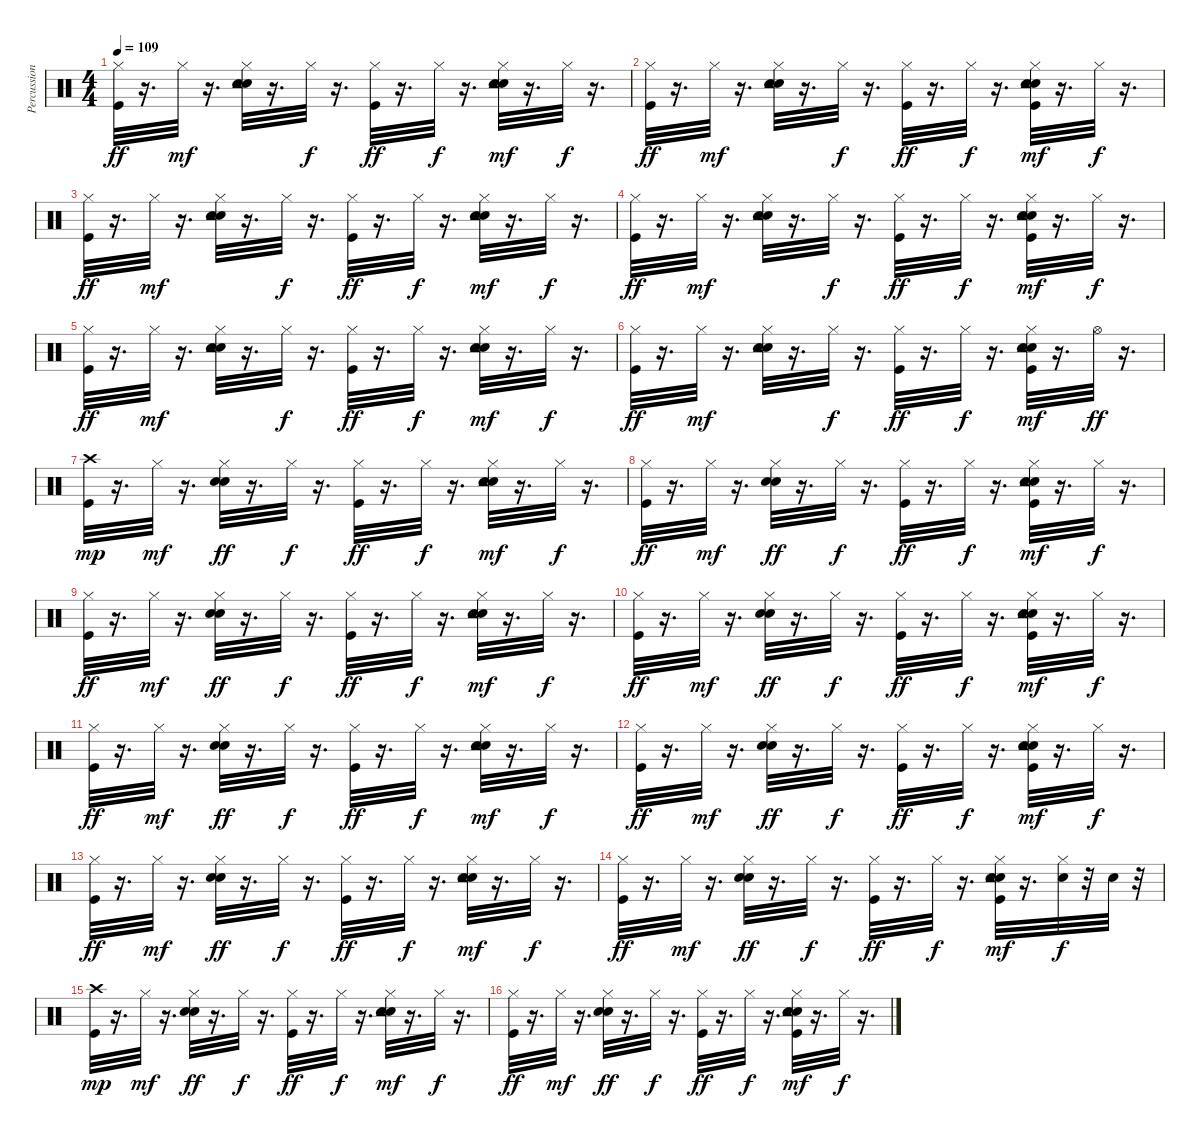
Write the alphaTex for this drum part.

\track ("Percussion" "Percussion") {instrument percussion}
\staff {score}
\articulation defaults
\ts (4 4)
\tempo 109
\clef neutral
\ks c
("Kick (hit)" "Hi-Hat (closed)").32{dy ff} r.16{d} "Hi-Hat (closed)".32{dy mf} r.16{d} ("Snare (hit) 2" "Hand Clap (hit)" "Hi-Hat (closed)" "Tambourine (hit)").32 r.16{d} "Hi-Hat (closed)".32{dy f} r.16{d} ("Kick (hit)" "Hi-Hat (closed)").32{dy ff} r.16{d} "Hi-Hat (closed)".32{dy f} r.16{d} ("Snare (hit) 2" "Hand Clap (hit)" "Hi-Hat (closed)" "Tambourine (hit)").32{dy mf} r.16{d} "Hi-Hat (closed)".32{dy f} r.16{d} |
("Kick (hit)" "Hi-Hat (closed)").32{dy ff} r.16{d} "Hi-Hat (closed)".32{dy mf} r.16{d} ("Snare (hit) 2" "Hand Clap (hit)" "Hi-Hat (closed)" "Tambourine (hit)").32 r.16{d} "Hi-Hat (closed)".32{dy f} r.16{d} ("Kick (hit)" "Hi-Hat (closed)").32{dy ff} r.16{d} "Hi-Hat (closed)".32{dy f} r.16{d} ("Kick (hit)" "Snare (hit) 2" "Hand Clap (hit)" "Hi-Hat (closed)" "Tambourine (hit)").32{dy mf} r.16{d} "Hi-Hat (closed)".32{dy f} r.16{d} |
("Kick (hit)" "Hi-Hat (closed)").32{dy ff} r.16{d} "Hi-Hat (closed)".32{dy mf} r.16{d} ("Snare (hit) 2" "Hand Clap (hit)" "Hi-Hat (closed)" "Tambourine (hit)").32 r.16{d} "Hi-Hat (closed)".32{dy f} r.16{d} ("Kick (hit)" "Hi-Hat (closed)").32{dy ff} r.16{d} "Hi-Hat (closed)".32{dy f} r.16{d} ("Snare (hit) 2" "Hand Clap (hit)" "Hi-Hat (closed)" "Tambourine (hit)").32{dy mf} r.16{d} "Hi-Hat (closed)".32{dy f} r.16{d} |
("Kick (hit)" "Hi-Hat (closed)").32{dy ff} r.16{d} "Hi-Hat (closed)".32{dy mf} r.16{d} ("Snare (hit) 2" "Hand Clap (hit)" "Hi-Hat (closed)" "Tambourine (hit)").32 r.16{d} "Hi-Hat (closed)".32{dy f} r.16{d} ("Kick (hit)" "Hi-Hat (closed)").32{dy ff} r.16{d} "Hi-Hat (closed)".32{dy f} r.16{d} ("Kick (hit)" "Snare (hit) 2" "Hand Clap (hit)" "Hi-Hat (closed)" "Tambourine (hit)").32{dy mf} r.16{d} "Hi-Hat (closed)".32{dy f} r.16{d} |
("Kick (hit)" "Hi-Hat (closed)").32{dy ff} r.16{d} "Hi-Hat (closed)".32{dy mf} r.16{d} ("Snare (hit) 2" "Hand Clap (hit)" "Hi-Hat (closed)" "Tambourine (hit)").32 r.16{d} "Hi-Hat (closed)".32{dy f} r.16{d} ("Kick (hit)" "Hi-Hat (closed)").32{dy ff} r.16{d} "Hi-Hat (closed)".32{dy f} r.16{d} ("Snare (hit) 2" "Hand Clap (hit)" "Hi-Hat (closed)" "Tambourine (hit)").32{dy mf} r.16{d} "Hi-Hat (closed)".32{dy f} r.16{d} |
("Kick (hit)" "Hi-Hat (closed)").32{dy ff} r.16{d} "Hi-Hat (closed)".32{dy mf} r.16{d} ("Snare (hit) 2" "Hand Clap (hit)" "Hi-Hat (closed)" "Tambourine (hit)").32 r.16{d} "Hi-Hat (closed)".32{dy f} r.16{d} ("Kick (hit)" "Hi-Hat (closed)").32{dy ff} r.16{d} "Hi-Hat (closed)".32{dy f} r.16{d} ("Kick (hit)" "Snare (hit) 2" "Hand Clap (hit)" "Hi-Hat (closed)" "Tambourine (hit)").32{dy mf} r.16{d} "Hi-Hat (open)".32{dy ff} r.16{d} |
("Kick (hit)" "Crash high (hit)").32{dy mp} r.16{d} "Hi-Hat (closed)".32{dy mf} r.16{d} ("Snare (hit) 2" "Hand Clap (hit)" "Hi-Hat (closed)").32{dy ff} r.16{d} "Hi-Hat (closed)".32{dy f} r.16{d} ("Kick (hit)" "Hi-Hat (closed)").32{dy ff} r.16{d} "Hi-Hat (closed)".32{dy f} r.16{d} ("Snare (hit) 2" "Hand Clap (hit)" "Hi-Hat (closed)" "Tambourine (hit)").32{dy mf} r.16{d} "Hi-Hat (closed)".32{dy f} r.16{d} |
("Kick (hit)" "Hi-Hat (closed)").32{dy ff} r.16{d} "Hi-Hat (closed)".32{dy mf} r.16{d} ("Snare (hit) 2" "Hand Clap (hit)" "Hi-Hat (closed)").32{dy ff} r.16{d} "Hi-Hat (closed)".32{dy f} r.16{d} ("Kick (hit)" "Hi-Hat (closed)").32{dy ff} r.16{d} "Hi-Hat (closed)".32{dy f} r.16{d} ("Kick (hit)" "Snare (hit) 2" "Hand Clap (hit)" "Hi-Hat (closed)" "Tambourine (hit)").32{dy mf} r.16{d} "Hi-Hat (closed)".32{dy f} r.16{d} |
("Kick (hit)" "Hi-Hat (closed)").32{dy ff} r.16{d} "Hi-Hat (closed)".32{dy mf} r.16{d} ("Snare (hit) 2" "Hand Clap (hit)" "Hi-Hat (closed)").32{dy ff} r.16{d} "Hi-Hat (closed)".32{dy f} r.16{d} ("Kick (hit)" "Hi-Hat (closed)").32{dy ff} r.16{d} "Hi-Hat (closed)".32{dy f} r.16{d} ("Snare (hit) 2" "Hand Clap (hit)" "Hi-Hat (closed)" "Tambourine (hit)").32{dy mf} r.16{d} "Hi-Hat (closed)".32{dy f} r.16{d} |
("Kick (hit)" "Hi-Hat (closed)").32{dy ff} r.16{d} "Hi-Hat (closed)".32{dy mf} r.16{d} ("Snare (hit) 2" "Hand Clap (hit)" "Hi-Hat (closed)").32{dy ff} r.16{d} "Hi-Hat (closed)".32{dy f} r.16{d} ("Kick (hit)" "Hi-Hat (closed)").32{dy ff} r.16{d} "Hi-Hat (closed)".32{dy f} r.16{d} ("Kick (hit)" "Snare (hit) 2" "Hand Clap (hit)" "Hi-Hat (closed)" "Tambourine (hit)").32{dy mf} r.16{d} "Hi-Hat (closed)".32{dy f} r.16{d} |
("Kick (hit)" "Hi-Hat (closed)").32{dy ff} r.16{d} "Hi-Hat (closed)".32{dy mf} r.16{d} ("Snare (hit) 2" "Hand Clap (hit)" "Hi-Hat (closed)").32{dy ff} r.16{d} "Hi-Hat (closed)".32{dy f} r.16{d} ("Kick (hit)" "Hi-Hat (closed)").32{dy ff} r.16{d} "Hi-Hat (closed)".32{dy f} r.16{d} ("Snare (hit) 2" "Hand Clap (hit)" "Hi-Hat (closed)" "Tambourine (hit)").32{dy mf} r.16{d} "Hi-Hat (closed)".32{dy f} r.16{d} |
("Kick (hit)" "Hi-Hat (closed)").32{dy ff} r.16{d} "Hi-Hat (closed)".32{dy mf} r.16{d} ("Snare (hit) 2" "Hand Clap (hit)" "Hi-Hat (closed)").32{dy ff} r.16{d} "Hi-Hat (closed)".32{dy f} r.16{d} ("Kick (hit)" "Hi-Hat (closed)").32{dy ff} r.16{d} "Hi-Hat (closed)".32{dy f} r.16{d} ("Kick (hit)" "Snare (hit) 2" "Hand Clap (hit)" "Hi-Hat (closed)" "Tambourine (hit)").32{dy mf} r.16{d} "Hi-Hat (closed)".32{dy f} r.16{d} |
("Kick (hit)" "Hi-Hat (closed)").32{dy ff} r.16{d} "Hi-Hat (closed)".32{dy mf} r.16{d} ("Snare (hit) 2" "Hand Clap (hit)" "Hi-Hat (closed)").32{dy ff} r.16{d} "Hi-Hat (closed)".32{dy f} r.16{d} ("Kick (hit)" "Hi-Hat (closed)").32{dy ff} r.16{d} "Hi-Hat (closed)".32{dy f} r.16{d} ("Snare (hit) 2" "Hand Clap (hit)" "Hi-Hat (closed)" "Tambourine (hit)").32{dy mf} r.16{d} "Hi-Hat (closed)".32{dy f} r.16{d} |
("Kick (hit)" "Hi-Hat (closed)").32{dy ff} r.16{d} "Hi-Hat (closed)".32{dy mf} r.16{d} ("Snare (hit) 2" "Hand Clap (hit)" "Hi-Hat (closed)").32{dy ff} r.16{d} "Hi-Hat (closed)".32{dy f} r.16{d} ("Kick (hit)" "Hi-Hat (closed)").32{dy ff} r.16{d} "Hi-Hat (closed)".32{dy f} r.16{d} ("Kick (hit)" "Snare (hit) 2" "Hand Clap (hit)" "Hi-Hat (closed)" "Tambourine (hit)").32{dy mf} r.16{d} ("Snare (hit) 2" "Hi-Hat (closed)").32{dy f} r.32 "Snare (hit) 2".32 r.32 |
("Kick (hit)" "Crash high (hit)").32{dy mp} r.16{d} "Hi-Hat (closed)".32{dy mf} r.16{d} ("Snare (hit) 2" "Hand Clap (hit)" "Hi-Hat (closed)").32{dy ff} r.16{d} "Hi-Hat (closed)".32{dy f} r.16{d} ("Kick (hit)" "Hi-Hat (closed)").32{dy ff} r.16{d} "Hi-Hat (closed)".32{dy f} r.16{d} ("Snare (hit) 2" "Hand Clap (hit)" "Hi-Hat (closed)" "Tambourine (hit)").32{dy mf} r.16{d} "Hi-Hat (closed)".32{dy f} r.16{d} |
("Kick (hit)" "Hi-Hat (closed)").32{dy ff} r.16{d} "Hi-Hat (closed)".32{dy mf} r.16{d} ("Snare (hit) 2" "Hand Clap (hit)" "Hi-Hat (closed)").32{dy ff} r.16{d} "Hi-Hat (closed)".32{dy f} r.16{d} ("Kick (hit)" "Hi-Hat (closed)").32{dy ff} r.16{d} "Hi-Hat (closed)".32{dy f} r.16{d} ("Kick (hit)" "Snare (hit) 2" "Hand Clap (hit)" "Hi-Hat (closed)" "Tambourine (hit)").32{dy mf} r.16{d} "Hi-Hat (closed)".32{dy f} r.16{d}
